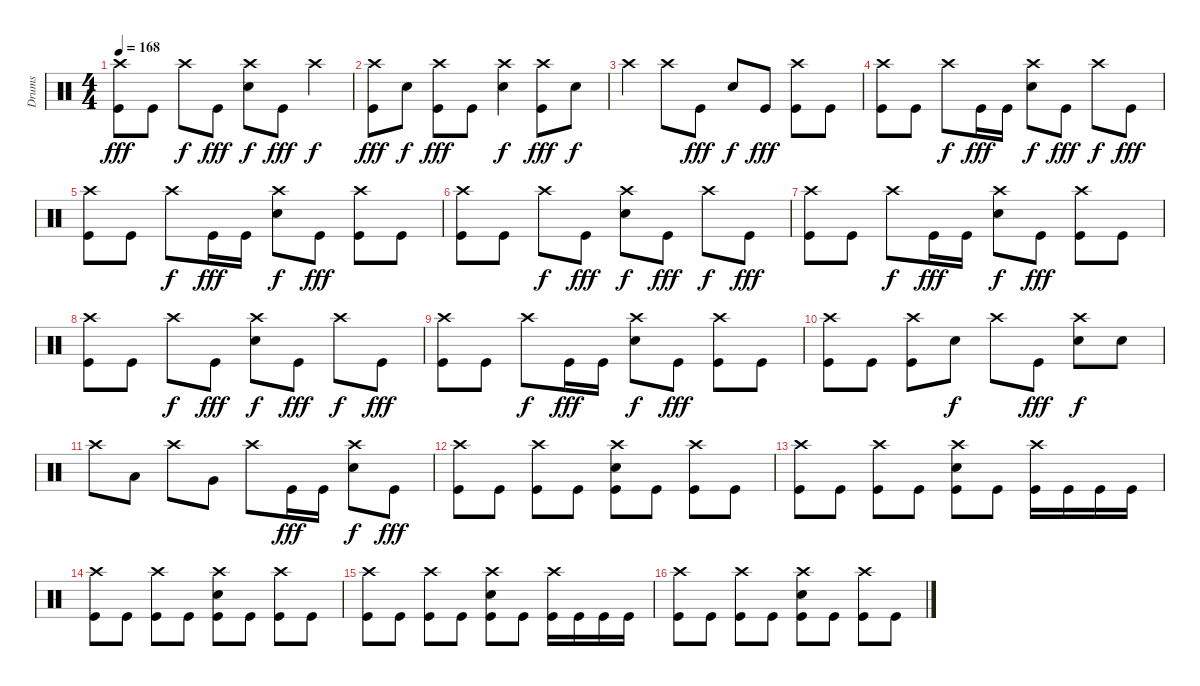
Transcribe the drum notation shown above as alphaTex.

\track ("Drums" "Drums") {instrument percussion}
\staff {score}
\articulation defaults
\ts (4 4)
\tempo 168
\clef neutral
\ks c
("Crash high (hit)" "Kick (hit)").8{dy fff} "Kick (hit)".8 "Crash high (hit)".8{dy f} "Kick (hit)".8{dy fff} ("Crash high (hit)" "Snare (hit) 2").8{dy f} "Kick (hit)".8{dy fff} "Crash high (hit)".4{dy f} |
("Crash high (hit)" "Kick (hit)").8{dy fff} "Snare (hit) 2".8{dy f} ("Crash high (hit)" "Kick (hit)").8{dy fff} "Kick (hit)".8 ("Crash high (hit)" "Snare (hit) 2").4{dy f} ("Crash high (hit)" "Kick (hit)").8{dy fff} "Snare (hit) 2".8{dy f} |
"Crash high (hit)".4 "Crash high (hit)".8 "Kick (hit)".8{dy fff} "Snare (hit) 2".8{dy f} "Kick (hit)".8{dy fff} ("Crash high (hit)" "Kick (hit)").8 "Kick (hit)".8 |
("Crash high (hit)" "Kick (hit)").8 "Kick (hit)".8 "Crash high (hit)".8{dy f} "Kick (hit)".16{dy fff} "Kick (hit)".16 ("Crash high (hit)" "Snare (hit) 2").8{dy f} "Kick (hit)".8{dy fff} "Crash high (hit)".8{dy f} "Kick (hit)".8{dy fff} |
("Crash high (hit)" "Kick (hit)").8 "Kick (hit)".8 "Crash high (hit)".8{dy f} "Kick (hit)".16{dy fff} "Kick (hit)".16 ("Crash high (hit)" "Snare (hit) 2").8{dy f} "Kick (hit)".8{dy fff} ("Crash high (hit)" "Kick (hit)").8 "Kick (hit)".8 |
("Crash high (hit)" "Kick (hit)").8 "Kick (hit)".8 "Crash high (hit)".8{dy f} "Kick (hit)".8{dy fff} ("Crash high (hit)" "Snare (hit) 2").8{dy f} "Kick (hit)".8{dy fff} "Crash high (hit)".8{dy f} "Kick (hit)".8{dy fff} |
("Crash high (hit)" "Kick (hit)").8 "Kick (hit)".8 "Crash high (hit)".8{dy f} "Kick (hit)".16{dy fff} "Kick (hit)".16 ("Crash high (hit)" "Snare (hit) 2").8{dy f} "Kick (hit)".8{dy fff} ("Crash high (hit)" "Kick (hit)").8 "Kick (hit)".8 |
("Crash high (hit)" "Kick (hit)").8 "Kick (hit)".8 "Crash high (hit)".8{dy f} "Kick (hit)".8{dy fff} ("Crash high (hit)" "Snare (hit) 2").8{dy f} "Kick (hit)".8{dy fff} "Crash high (hit)".8{dy f} "Kick (hit)".8{dy fff} |
("Crash high (hit)" "Kick (hit)").8 "Kick (hit)".8 "Crash high (hit)".8{dy f} "Kick (hit)".16{dy fff} "Kick (hit)".16 ("Crash high (hit)" "Snare (hit) 2").8{dy f} "Kick (hit)".8{dy fff} ("Crash high (hit)" "Kick (hit)").8 "Kick (hit)".8 |
("Crash high (hit)" "Kick (hit)").8 "Kick (hit)".8 ("Crash high (hit)" "Kick (hit)").8 "Snare (hit) 2".8{dy f} "Crash high (hit)".8 "Kick (hit)".8{dy fff} ("Crash high (hit)" "Snare (hit) 2").8{dy f} "Snare (hit) 2".8 |
"Crash high (hit)".8 "Low Tom (hit)".8 "Crash high (hit)".8 "Very Low Tom (hit)".8 "Crash high (hit)".8 "Kick (hit)".16{dy fff} "Kick (hit)".16 ("Crash high (hit)" "Snare (hit) 2").8{dy f} "Kick (hit)".8{dy fff} |
("Crash high (hit)" "Kick (hit)").8 "Kick (hit)".8 ("Crash high (hit)" "Kick (hit)").8 "Kick (hit)".8 ("Crash high (hit)" "Snare (hit) 2" "Kick (hit)").8 "Kick (hit)".8 ("Crash high (hit)" "Kick (hit)").8 "Kick (hit)".8 |
("Crash high (hit)" "Kick (hit)").8 "Kick (hit)".8 ("Crash high (hit)" "Kick (hit)").8 "Kick (hit)".8 ("Crash high (hit)" "Snare (hit) 2" "Kick (hit)").8 "Kick (hit)".8 ("Crash high (hit)" "Kick (hit)").16 "Kick (hit)".16 "Kick (hit)".16 "Kick (hit)".16 |
("Crash high (hit)" "Kick (hit)").8 "Kick (hit)".8 ("Crash high (hit)" "Kick (hit)").8 "Kick (hit)".8 ("Crash high (hit)" "Snare (hit) 2" "Kick (hit)").8 "Kick (hit)".8 ("Crash high (hit)" "Kick (hit)").8 "Kick (hit)".8 |
("Crash high (hit)" "Kick (hit)").8 "Kick (hit)".8 ("Crash high (hit)" "Kick (hit)").8 "Kick (hit)".8 ("Crash high (hit)" "Snare (hit) 2" "Kick (hit)").8 "Kick (hit)".8 ("Crash high (hit)" "Kick (hit)").16 "Kick (hit)".16 "Kick (hit)".16 "Kick (hit)".16 |
("Crash high (hit)" "Kick (hit)").8 "Kick (hit)".8 ("Crash high (hit)" "Kick (hit)").8 "Kick (hit)".8 ("Crash high (hit)" "Snare (hit) 2" "Kick (hit)").8 "Kick (hit)".8 ("Crash high (hit)" "Kick (hit)").8 "Kick (hit)".8
